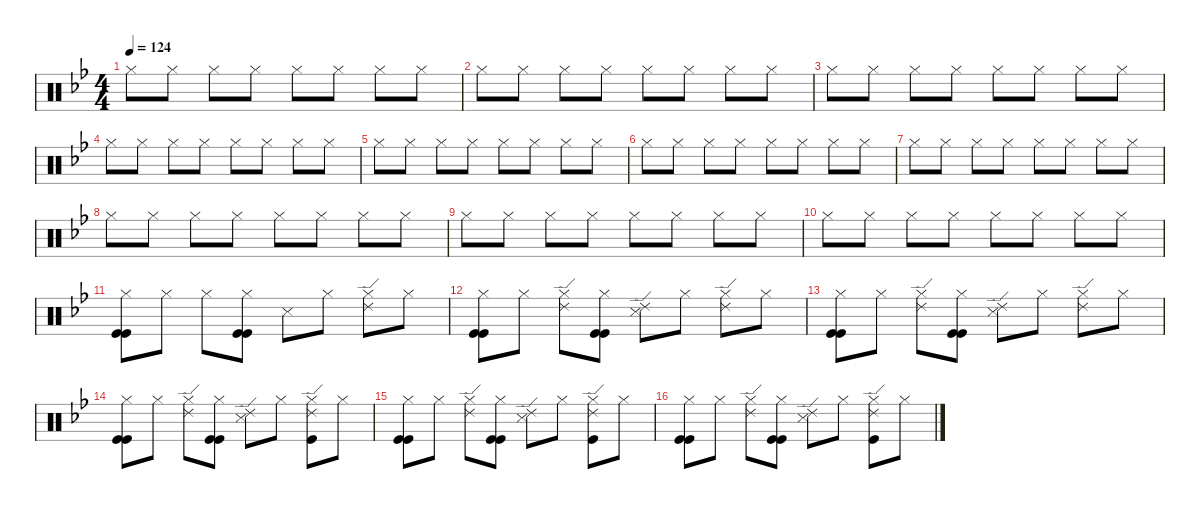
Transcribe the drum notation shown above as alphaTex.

\defaultSystemsLayout 4
\hideDynamics
\bracketExtendMode nobrackets
\singleTrackTrackNamePolicy hidden
\multiTrackTrackNamePolicy hidden
\firstSystemTrackNameMode fullname
\firstSystemTrackNameOrientation horizontal
\otherSystemsTrackNameOrientation horizontal
\track ("Percussion" "drm.") {instrument percussion}
\staff {score}
\articulation defaults
\ts (4 4)
\tempo 124
\clef neutral
\ks gminor "Hi-Hat (closed)"{acc forcenatural}.8{dy f beam Down} "Hi-Hat (closed)"{acc forcenatural}.8{beam Down} "Hi-Hat (closed)"{acc forcenatural}.8{beam Down} "Hi-Hat (closed)"{acc forcenatural}.8{beam Down} "Hi-Hat (closed)"{acc forcenatural}.8{beam Down} "Hi-Hat (closed)"{acc forcenatural}.8{beam Down} "Hi-Hat (closed)"{acc forcenatural}.8{beam Down} "Hi-Hat (closed)"{acc forcenatural}.8{beam Down}
|
"Hi-Hat (closed)"{acc forcenatural}.8{beam Down} "Hi-Hat (closed)"{acc forcenatural}.8{beam Down} "Hi-Hat (closed)"{acc forcenatural}.8{beam Down} "Hi-Hat (closed)"{acc forcenatural}.8{beam Down} "Hi-Hat (closed)"{acc forcenatural}.8{beam Down} "Hi-Hat (closed)"{acc forcenatural}.8{beam Down} "Hi-Hat (closed)"{acc forcenatural}.8{beam Down} "Hi-Hat (closed)"{acc forcenatural}.8{beam Down} |
"Hi-Hat (closed)"{acc forcenatural}.8{beam Down} "Hi-Hat (closed)"{acc forcenatural}.8{beam Down} "Hi-Hat (closed)"{acc forcenatural}.8{beam Down} "Hi-Hat (closed)"{acc forcenatural}.8{beam Down} "Hi-Hat (closed)"{acc forcenatural}.8{beam Down} "Hi-Hat (closed)"{acc forcenatural}.8{beam Down} "Hi-Hat (closed)"{acc forcenatural}.8{beam Down} "Hi-Hat (closed)"{acc forcenatural}.8{beam Down} |
"Hi-Hat (closed)"{acc forcenatural}.8{beam Down} "Hi-Hat (closed)"{acc forcenatural}.8{beam Down} "Hi-Hat (closed)"{acc forcenatural}.8{beam Down} "Hi-Hat (closed)"{acc forcenatural}.8{beam Down} "Hi-Hat (closed)"{acc forcenatural}.8{beam Down} "Hi-Hat (closed)"{acc forcenatural}.8{beam Down} "Hi-Hat (closed)"{acc forcenatural}.8{beam Down} "Hi-Hat (closed)"{acc forcenatural}.8{beam Down} |
"Hi-Hat (closed)"{acc forcenatural}.8{beam Down} "Hi-Hat (closed)"{acc forcenatural}.8{beam Down} "Hi-Hat (closed)"{acc forcenatural}.8{beam Down} "Hi-Hat (closed)"{acc forcenatural}.8{beam Down} "Hi-Hat (closed)"{acc forcenatural}.8{beam Down} "Hi-Hat (closed)"{acc forcenatural}.8{beam Down} "Hi-Hat (closed)"{acc forcenatural}.8{beam Down} "Hi-Hat (closed)"{acc forcenatural}.8{beam Down} |
"Hi-Hat (closed)"{acc forcenatural}.8{beam Down} "Hi-Hat (closed)"{acc forcenatural}.8{beam Down} "Hi-Hat (closed)"{acc forcenatural}.8{beam Down} "Hi-Hat (closed)"{acc forcenatural}.8{beam Down} "Hi-Hat (closed)"{acc forcenatural}.8{beam Down} "Hi-Hat (closed)"{acc forcenatural}.8{beam Down} "Hi-Hat (closed)"{acc forcenatural}.8{beam Down} "Hi-Hat (closed)"{acc forcenatural}.8{beam Down} |
"Hi-Hat (closed)"{acc forcenatural}.8{beam Down} "Hi-Hat (closed)"{acc forcenatural}.8{beam Down} "Hi-Hat (closed)"{acc forcenatural}.8{beam Down} "Hi-Hat (closed)"{acc forcenatural}.8{beam Down} "Hi-Hat (closed)"{acc forcenatural}.8{beam Down} "Hi-Hat (closed)"{acc forcenatural}.8{beam Down} "Hi-Hat (closed)"{acc forcenatural}.8{beam Down} "Hi-Hat (closed)"{acc forcenatural}.8{beam Down} |
"Hi-Hat (closed)"{acc forcenatural}.8{beam Down} "Hi-Hat (closed)"{acc forcenatural}.8{beam Down} "Hi-Hat (closed)"{acc forcenatural}.8{beam Down} "Hi-Hat (closed)"{acc forcenatural}.8{beam Down} "Hi-Hat (closed)"{acc forcenatural}.8{beam Down} "Hi-Hat (closed)"{acc forcenatural}.8{beam Down} "Hi-Hat (closed)"{acc forcenatural}.8{beam Down} "Hi-Hat (closed)"{acc forcenatural}.8{beam Down} |
"Hi-Hat (closed)"{acc forcenatural}.8{beam Down} "Hi-Hat (closed)"{acc forcenatural}.8{beam Down} "Hi-Hat (closed)"{acc forcenatural}.8{beam Down} "Hi-Hat (closed)"{acc forcenatural}.8{beam Down} "Hi-Hat (closed)"{acc forcenatural}.8{beam Down} "Hi-Hat (closed)"{acc forcenatural}.8{beam Down} "Hi-Hat (closed)"{acc forcenatural}.8{beam Down} "Hi-Hat (closed)"{acc forcenatural}.8{beam Down} |
"Hi-Hat (closed)"{acc forcenatural}.8{beam Down} "Hi-Hat (closed)"{acc forcenatural}.8{beam Down} "Hi-Hat (closed)"{acc forcenatural}.8{beam Down} "Hi-Hat (closed)"{acc forcenatural}.8{beam Down} "Hi-Hat (closed)"{acc forcenatural}.8{beam Down} "Hi-Hat (closed)"{acc forcenatural}.8{beam Down} "Hi-Hat (closed)"{acc forcenatural}.8{beam Down} "Hi-Hat (closed)"{acc forcenatural}.8{beam Down} |
("Hi-Hat (closed)"{acc forcenatural} "Kick (hit)"{acc forcenatural} "Kick (hit)"{acc forcenatural}).8{beam Down} "Hi-Hat (closed)"{acc forcenatural}.8{beam Down} "Hi-Hat (closed)"{acc forcenatural}.8{beam Down} ("Hi-Hat (closed)"{acc forcenatural} "Kick (hit)"{acc forcenatural} "Kick (hit)"{acc forcenatural}).8{beam Down} "Snare (side stick) 3"{acc forcenatural}.8{beam Down} "Hi-Hat (closed)"{acc forcenatural}.8{beam Down} ("Ride (edge) 2"{acc forcenatural} "Hi-Hat (closed)"{acc forcenatural}).8{beam Down} "Hi-Hat (closed)"{acc forcenatural}.8{beam Down} |
("Hi-Hat (closed)"{acc forcenatural} "Kick (hit)"{acc forcenatural} "Kick (hit)"{acc forcenatural}).8{beam Down} "Hi-Hat (closed)"{acc forcenatural}.8{beam Down} ("Ride (edge) 2"{acc forcenatural} "Hi-Hat (closed)"{acc forcenatural}).8{beam Down} ("Hi-Hat (closed)"{acc forcenatural} "Kick (hit)"{acc forcenatural} "Kick (hit)"{acc forcenatural}).8{beam Down} ("Ride (edge) 2"{acc forcenatural} "Snare (side stick) 3"{acc forcenatural}).8{beam Down} "Hi-Hat (closed)"{acc forcenatural}.8{beam Down} ("Ride (edge) 2"{acc forcenatural} "Hi-Hat (closed)"{acc forcenatural}).8{beam Down} "Hi-Hat (closed)"{acc forcenatural}.8{beam Down} |
("Hi-Hat (closed)"{acc forcenatural} "Kick (hit)"{acc forcenatural} "Kick (hit)"{acc forcenatural}).8{beam Down} "Hi-Hat (closed)"{acc forcenatural}.8{beam Down} ("Ride (edge) 2"{acc forcenatural} "Hi-Hat (closed)"{acc forcenatural}).8{beam Down} ("Hi-Hat (closed)"{acc forcenatural} "Kick (hit)"{acc forcenatural} "Kick (hit)"{acc forcenatural}).8{beam Down} ("Ride (edge) 2"{acc forcenatural} "Snare (side stick) 3"{acc forcenatural}).8{beam Down} "Hi-Hat (closed)"{acc forcenatural}.8{beam Down} ("Ride (edge) 2"{acc forcenatural} "Hi-Hat (closed)"{acc forcenatural}).8{beam Down} "Hi-Hat (closed)"{acc forcenatural}.8{beam Down} |
("Hi-Hat (closed)"{acc forcenatural} "Kick (hit)"{acc forcenatural} "Kick (hit)"{acc forcenatural}).8{beam Down} "Hi-Hat (closed)"{acc forcenatural}.8{beam Down} ("Ride (edge) 2"{acc forcenatural} "Hi-Hat (closed)"{acc forcenatural}).8{beam Down} ("Hi-Hat (closed)"{acc forcenatural} "Kick (hit)"{acc forcenatural} "Kick (hit)"{acc forcenatural}).8{beam Down} ("Ride (edge) 2"{acc forcenatural} "Snare (side stick) 3"{acc forcenatural}).8{beam Down} "Hi-Hat (closed)"{acc forcenatural}.8{beam Down} ("Ride (edge) 2"{acc forcenatural} "Hi-Hat (closed)"{acc forcenatural} "Kick (hit)"{acc forcenatural}).8{beam Down} "Hi-Hat (closed)"{acc forcenatural}.8{beam Down} |
("Hi-Hat (closed)"{acc forcenatural} "Kick (hit)"{acc forcenatural} "Kick (hit)"{acc forcenatural}).8{beam Down} "Hi-Hat (closed)"{acc forcenatural}.8{beam Down} ("Ride (edge) 2"{acc forcenatural} "Hi-Hat (closed)"{acc forcenatural}).8{beam Down} ("Hi-Hat (closed)"{acc forcenatural} "Kick (hit)"{acc forcenatural} "Kick (hit)"{acc forcenatural}).8{beam Down} ("Ride (edge) 2"{acc forcenatural} "Snare (side stick) 3"{acc forcenatural}).8{beam Down} "Hi-Hat (closed)"{acc forcenatural}.8{beam Down} ("Ride (edge) 2"{acc forcenatural} "Hi-Hat (closed)"{acc forcenatural} "Kick (hit)"{acc forcenatural}).8{beam Down} "Hi-Hat (closed)"{acc forcenatural}.8{beam Down} |
("Hi-Hat (closed)"{acc forcenatural} "Kick (hit)"{acc forcenatural} "Kick (hit)"{acc forcenatural}).8{beam Down} "Hi-Hat (closed)"{acc forcenatural}.8{beam Down} ("Ride (edge) 2"{acc forcenatural} "Hi-Hat (closed)"{acc forcenatural}).8{beam Down} ("Hi-Hat (closed)"{acc forcenatural} "Kick (hit)"{acc forcenatural} "Kick (hit)"{acc forcenatural}).8{beam Down} ("Ride (edge) 2"{acc forcenatural} "Snare (side stick) 3"{acc forcenatural}).8{beam Down} "Hi-Hat (closed)"{acc forcenatural}.8{beam Down} ("Ride (edge) 2"{acc forcenatural} "Hi-Hat (closed)"{acc forcenatural} "Kick (hit)"{acc forcenatural}).8{beam Down} "Hi-Hat (closed)"{acc forcenatural}.8{beam Down}
